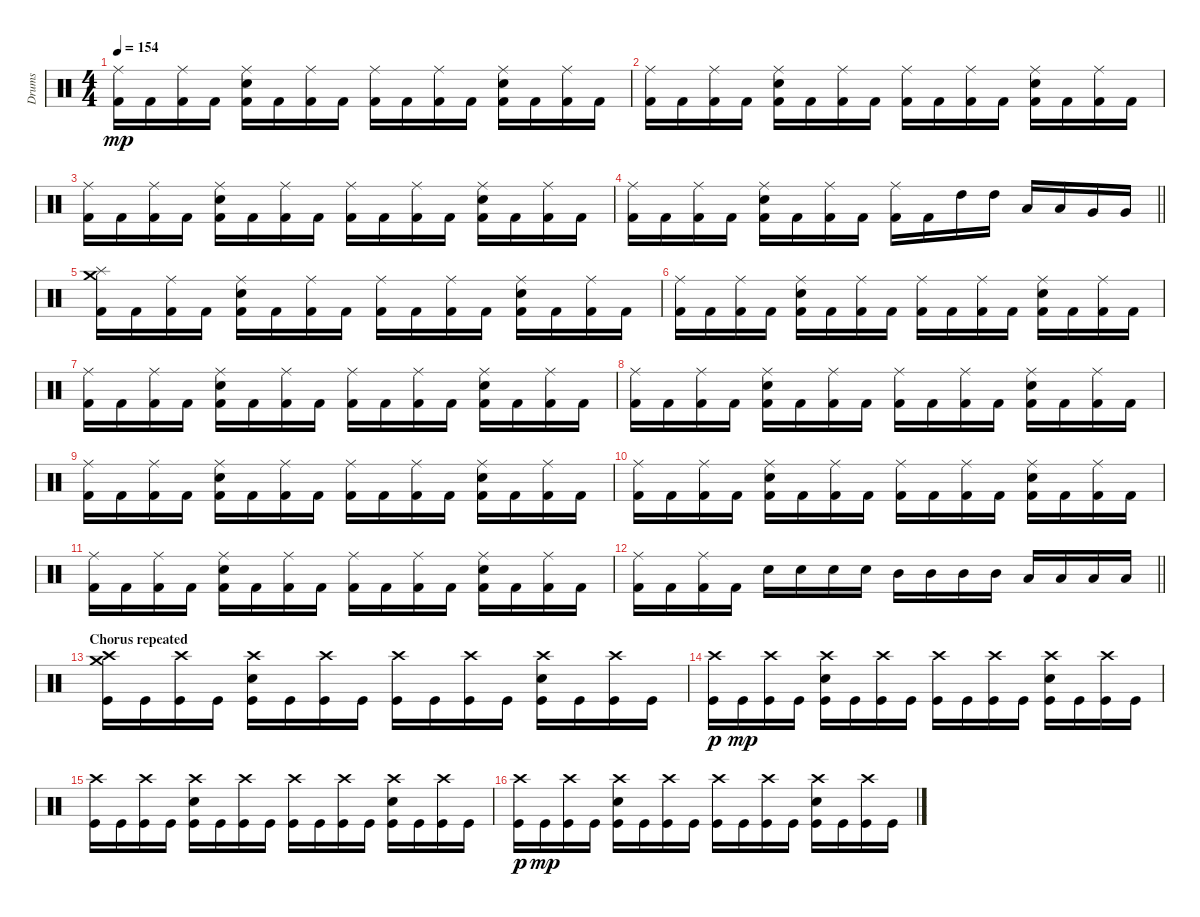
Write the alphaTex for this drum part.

\track ("Drums" "Drums") {instrument percussion}
\staff {score}
\articulation defaults
\ts (4 4)
\tempo 154
\clef neutral
\ks c
("Ride (middle)" "Kick (hit) 2").16{dy mp} "Kick (hit) 2".16 ("Ride (middle)" "Kick (hit) 2").16 "Kick (hit) 2".16 ("Ride (middle)" "Electric Snare (hit)" "Kick (hit) 2").16 "Kick (hit) 2".16 ("Ride (middle)" "Kick (hit) 2").16 "Kick (hit) 2".16 ("Ride (middle)" "Kick (hit) 2").16 "Kick (hit) 2".16 ("Ride (middle)" "Kick (hit) 2").16 "Kick (hit) 2".16 ("Ride (middle)" "Electric Snare (hit)" "Kick (hit) 2").16 "Kick (hit) 2".16 ("Ride (middle)" "Kick (hit) 2").16 "Kick (hit) 2".16 |
("Ride (middle)" "Kick (hit) 2").16 "Kick (hit) 2".16 ("Ride (middle)" "Kick (hit) 2").16 "Kick (hit) 2".16 ("Ride (middle)" "Electric Snare (hit)" "Kick (hit) 2").16 "Kick (hit) 2".16 ("Ride (middle)" "Kick (hit) 2").16 "Kick (hit) 2".16 ("Ride (middle)" "Kick (hit) 2").16 "Kick (hit) 2".16 ("Ride (middle)" "Kick (hit) 2").16 "Kick (hit) 2".16 ("Ride (middle)" "Electric Snare (hit)" "Kick (hit) 2").16 "Kick (hit) 2".16 ("Ride (middle)" "Kick (hit) 2").16 "Kick (hit) 2".16 |
("Ride (middle)" "Kick (hit) 2").16 "Kick (hit) 2".16 ("Ride (middle)" "Kick (hit) 2").16 "Kick (hit) 2".16 ("Ride (middle)" "Electric Snare (hit)" "Kick (hit) 2").16 "Kick (hit) 2".16 ("Ride (middle)" "Kick (hit) 2").16 "Kick (hit) 2".16 ("Ride (middle)" "Kick (hit) 2").16 "Kick (hit) 2".16 ("Ride (middle)" "Kick (hit) 2").16 "Kick (hit) 2".16 ("Ride (middle)" "Electric Snare (hit)" "Kick (hit) 2").16 "Kick (hit) 2".16 ("Ride (middle)" "Kick (hit) 2").16 "Kick (hit) 2".16 |
\barLineRight lightlight
("Ride (middle)" "Kick (hit) 2").16 "Kick (hit) 2".16 ("Ride (middle)" "Kick (hit) 2").16 "Kick (hit) 2".16 ("Ride (middle)" "Electric Snare (hit)" "Kick (hit) 2").16 "Kick (hit) 2".16 ("Ride (middle)" "Kick (hit) 2").16 "Kick (hit) 2".16 ("Ride (middle)" "Kick (hit) 2").16 "Kick (hit) 2".16 "High Tom (hit)".16 "High Tom (hit)".16 "Low Tom (hit)".16 "Low Tom (hit)".16 "Very Low Tom (hit)".16 "Very Low Tom (hit)".16 |
("Crash medium (hit)" "Splash (hit)" "Kick (hit) 2").16 "Kick (hit) 2".16 ("Ride (middle)" "Kick (hit) 2").16 "Kick (hit) 2".16 ("Ride (middle)" "Electric Snare (hit)" "Kick (hit) 2").16 "Kick (hit) 2".16 ("Ride (middle)" "Kick (hit) 2").16 "Kick (hit) 2".16 ("Ride (middle)" "Kick (hit) 2").16 "Kick (hit) 2".16 ("Ride (middle)" "Kick (hit) 2").16 "Kick (hit) 2".16 ("Ride (middle)" "Electric Snare (hit)" "Kick (hit) 2").16 "Kick (hit) 2".16 ("Ride (middle)" "Kick (hit) 2").16 "Kick (hit) 2".16 |
("Ride (middle)" "Kick (hit) 2").16 "Kick (hit) 2".16 ("Ride (middle)" "Kick (hit) 2").16 "Kick (hit) 2".16 ("Ride (middle)" "Electric Snare (hit)" "Kick (hit) 2").16 "Kick (hit) 2".16 ("Ride (middle)" "Kick (hit) 2").16 "Kick (hit) 2".16 ("Ride (middle)" "Kick (hit) 2").16 "Kick (hit) 2".16 ("Ride (middle)" "Kick (hit) 2").16 "Kick (hit) 2".16 ("Ride (middle)" "Electric Snare (hit)" "Kick (hit) 2").16 "Kick (hit) 2".16 ("Ride (middle)" "Kick (hit) 2").16 "Kick (hit) 2".16 |
("Ride (middle)" "Kick (hit) 2").16 "Kick (hit) 2".16 ("Ride (middle)" "Kick (hit) 2").16 "Kick (hit) 2".16 ("Ride (middle)" "Electric Snare (hit)" "Kick (hit) 2").16 "Kick (hit) 2".16 ("Ride (middle)" "Kick (hit) 2").16 "Kick (hit) 2".16 ("Ride (middle)" "Kick (hit) 2").16 "Kick (hit) 2".16 ("Ride (middle)" "Kick (hit) 2").16 "Kick (hit) 2".16 ("Ride (middle)" "Electric Snare (hit)" "Kick (hit) 2").16 "Kick (hit) 2".16 ("Ride (middle)" "Kick (hit) 2").16 "Kick (hit) 2".16 |
("Ride (middle)" "Kick (hit) 2").16 "Kick (hit) 2".16 ("Ride (middle)" "Kick (hit) 2").16 "Kick (hit) 2".16 ("Ride (middle)" "Electric Snare (hit)" "Kick (hit) 2").16 "Kick (hit) 2".16 ("Ride (middle)" "Kick (hit) 2").16 "Kick (hit) 2".16 ("Ride (middle)" "Kick (hit) 2").16 "Kick (hit) 2".16 ("Ride (middle)" "Kick (hit) 2").16 "Kick (hit) 2".16 ("Ride (middle)" "Electric Snare (hit)" "Kick (hit) 2").16 "Kick (hit) 2".16 ("Ride (middle)" "Kick (hit) 2").16 "Kick (hit) 2".16 |
("Ride (middle)" "Kick (hit) 2").16 "Kick (hit) 2".16 ("Ride (middle)" "Kick (hit) 2").16 "Kick (hit) 2".16 ("Ride (middle)" "Electric Snare (hit)" "Kick (hit) 2").16 "Kick (hit) 2".16 ("Ride (middle)" "Kick (hit) 2").16 "Kick (hit) 2".16 ("Ride (middle)" "Kick (hit) 2").16 "Kick (hit) 2".16 ("Ride (middle)" "Kick (hit) 2").16 "Kick (hit) 2".16 ("Ride (middle)" "Electric Snare (hit)" "Kick (hit) 2").16 "Kick (hit) 2".16 ("Ride (middle)" "Kick (hit) 2").16 "Kick (hit) 2".16 |
("Ride (middle)" "Kick (hit) 2").16 "Kick (hit) 2".16 ("Ride (middle)" "Kick (hit) 2").16 "Kick (hit) 2".16 ("Ride (middle)" "Electric Snare (hit)" "Kick (hit) 2").16 "Kick (hit) 2".16 ("Ride (middle)" "Kick (hit) 2").16 "Kick (hit) 2".16 ("Ride (middle)" "Kick (hit) 2").16 "Kick (hit) 2".16 ("Ride (middle)" "Kick (hit) 2").16 "Kick (hit) 2".16 ("Ride (middle)" "Electric Snare (hit)" "Kick (hit) 2").16 "Kick (hit) 2".16 ("Ride (middle)" "Kick (hit) 2").16 "Kick (hit) 2".16 |
("Ride (middle)" "Kick (hit) 2").16 "Kick (hit) 2".16 ("Ride (middle)" "Kick (hit) 2").16 "Kick (hit) 2".16 ("Ride (middle)" "Electric Snare (hit)" "Kick (hit) 2").16 "Kick (hit) 2".16 ("Ride (middle)" "Kick (hit) 2").16 "Kick (hit) 2".16 ("Ride (middle)" "Kick (hit) 2").16 "Kick (hit) 2".16 ("Ride (middle)" "Kick (hit) 2").16 "Kick (hit) 2".16 ("Ride (middle)" "Electric Snare (hit)" "Kick (hit) 2").16 "Kick (hit) 2".16 ("Ride (middle)" "Kick (hit) 2").16 "Kick (hit) 2".16 |
\barLineRight lightlight
("Ride (middle)" "Kick (hit) 2").16 "Kick (hit) 2".16 ("Ride (middle)" "Kick (hit) 2").16 "Kick (hit) 2".16 "Electric Snare (hit)".16 "Electric Snare (hit)".16 "Electric Snare (hit)".16 "Electric Snare (hit)".16 "Mid Tom (hit)".16 "Mid Tom (hit)".16 "Mid Tom (hit)".16 "Mid Tom (hit)".16 "Low Tom (hit)".16 "Low Tom (hit)".16 "Low Floor Tom (hit)".16 "Low Floor Tom (hit)".16 |
\section ("" "Chorus repeated")
("Crash medium (hit)" "Crash high (hit)" "Kick (hit)").16 "Kick (hit)".16 ("Crash high (hit)" "Kick (hit)").16 "Kick (hit)".16 ("Crash high (hit)" "Electric Snare (hit)" "Kick (hit)").16 "Kick (hit)".16 ("Crash high (hit)" "Kick (hit)").16 "Kick (hit)".16 ("Crash high (hit)" "Kick (hit)").16 "Kick (hit)".16 ("Crash high (hit)" "Kick (hit)").16 "Kick (hit)".16 ("Crash high (hit)" "Electric Snare (hit)" "Kick (hit)").16 "Kick (hit)".16 ("Crash high (hit)" "Kick (hit)").16 "Kick (hit)".16 |
("Crash high (hit)" "Kick (hit)").16{dy p} "Kick (hit)".16{dy mp} ("Crash high (hit)" "Kick (hit)").16 "Kick (hit)".16 ("Crash high (hit)" "Electric Snare (hit)" "Kick (hit)").16 "Kick (hit)".16 ("Crash high (hit)" "Kick (hit)").16 "Kick (hit)".16 ("Crash high (hit)" "Kick (hit)").16 "Kick (hit)".16 ("Crash high (hit)" "Kick (hit)").16 "Kick (hit)".16 ("Crash high (hit)" "Electric Snare (hit)" "Kick (hit)").16 "Kick (hit)".16 ("Crash high (hit)" "Kick (hit)").16 "Kick (hit)".16 |
("Crash high (hit)" "Kick (hit)").16 "Kick (hit)".16 ("Crash high (hit)" "Kick (hit)").16 "Kick (hit)".16 ("Crash high (hit)" "Electric Snare (hit)" "Kick (hit)").16 "Kick (hit)".16 ("Crash high (hit)" "Kick (hit)").16 "Kick (hit)".16 ("Crash high (hit)" "Kick (hit)").16 "Kick (hit)".16 ("Crash high (hit)" "Kick (hit)").16 "Kick (hit)".16 ("Crash high (hit)" "Electric Snare (hit)" "Kick (hit)").16 "Kick (hit)".16 ("Crash high (hit)" "Kick (hit)").16 "Kick (hit)".16 |
("Crash high (hit)" "Kick (hit)").16{dy p} "Kick (hit)".16{dy mp} ("Crash high (hit)" "Kick (hit)").16 "Kick (hit)".16 ("Crash high (hit)" "Electric Snare (hit)" "Kick (hit)").16 "Kick (hit)".16 ("Crash high (hit)" "Kick (hit)").16 "Kick (hit)".16 ("Crash high (hit)" "Kick (hit)").16 "Kick (hit)".16 ("Crash high (hit)" "Kick (hit)").16 "Kick (hit)".16 ("Crash high (hit)" "Electric Snare (hit)" "Kick (hit)").16 "Kick (hit)".16 ("Crash high (hit)" "Kick (hit)").16 "Kick (hit)".16
